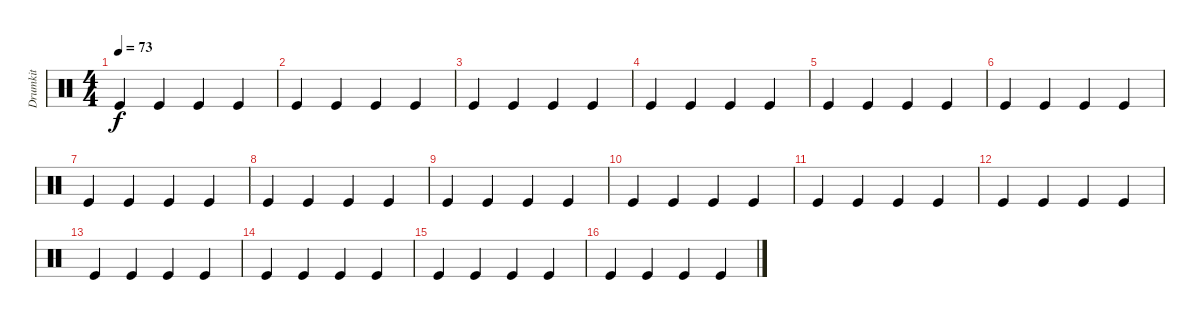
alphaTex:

\track ("Drumkit" "Drumkit") {instrument percussion}
\staff {score}
\articulation defaults
\ts (4 4)
\tempo 73
\clef neutral
\ks c "Kick (hit)".4{dy f} "Kick (hit)".4 "Kick (hit)".4 "Kick (hit)".4
|
"Kick (hit)".4 "Kick (hit)".4 "Kick (hit)".4 "Kick (hit)".4 |
"Kick (hit)".4 "Kick (hit)".4 "Kick (hit)".4 "Kick (hit)".4 |
"Kick (hit)".4 "Kick (hit)".4 "Kick (hit)".4 "Kick (hit)".4 |
"Kick (hit)".4 "Kick (hit)".4 "Kick (hit)".4 "Kick (hit)".4 |
"Kick (hit)".4 "Kick (hit)".4 "Kick (hit)".4 "Kick (hit)".4 |
"Kick (hit)".4 "Kick (hit)".4 "Kick (hit)".4 "Kick (hit)".4 |
"Kick (hit)".4 "Kick (hit)".4 "Kick (hit)".4 "Kick (hit)".4 |
"Kick (hit)".4 "Kick (hit)".4 "Kick (hit)".4 "Kick (hit)".4 |
"Kick (hit)".4 "Kick (hit)".4 "Kick (hit)".4 "Kick (hit)".4 |
"Kick (hit)".4 "Kick (hit)".4 "Kick (hit)".4 "Kick (hit)".4 |
"Kick (hit)".4 "Kick (hit)".4 "Kick (hit)".4 "Kick (hit)".4 |
"Kick (hit)".4 "Kick (hit)".4 "Kick (hit)".4 "Kick (hit)".4 |
"Kick (hit)".4 "Kick (hit)".4 "Kick (hit)".4 "Kick (hit)".4 |
"Kick (hit)".4 "Kick (hit)".4 "Kick (hit)".4 "Kick (hit)".4 |
"Kick (hit)".4 "Kick (hit)".4 "Kick (hit)".4 "Kick (hit)".4
